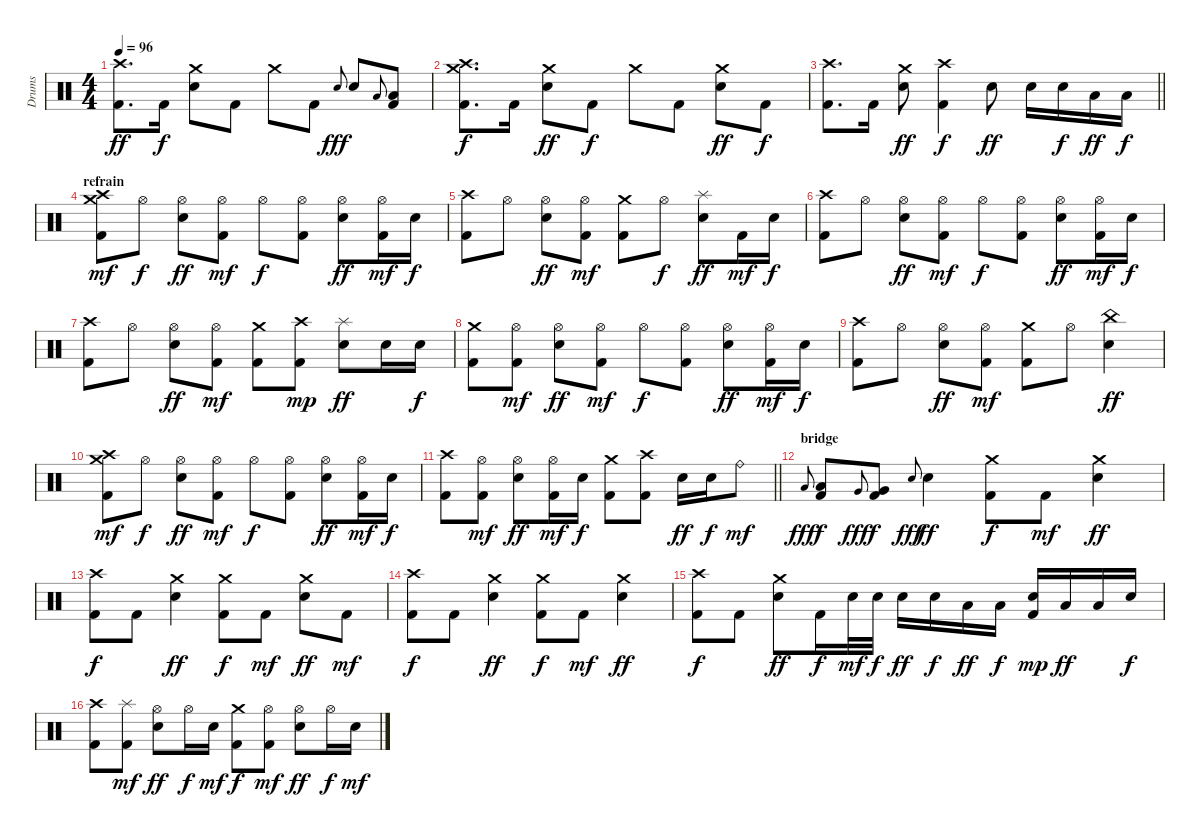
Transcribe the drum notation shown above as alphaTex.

\track ("Drums" "Drums") {instrument percussion}
\staff {score}
\articulation defaults
\ts (4 4)
\tempo 96
\clef neutral
\ks c
("Crash high (hit)" "Kick (hit) 2").8{d dy ff} "Kick (hit) 2".16{dy f} ("Crash medium (hit)" "Electric Snare (hit)").8 "Kick (hit) 2".8 "Crash medium (hit)".8 "Kick (hit) 2".8 "Electric Snare (hit)".8{gr onbeat dy fff} "Electric Snare (hit)".8 "Low Tom (hit)".8{gr onbeat} ("Low Tom (hit)" "Kick (hit) 2").8 |
("Crash medium (hit)" "Crash high (hit)" "Kick (hit) 2").8{d dy f} "Kick (hit) 2".16 ("Crash medium (hit)" "Electric Snare (hit)").8{dy ff} "Kick (hit) 2".8{dy f} "Crash medium (hit)".8 "Kick (hit) 2".8 ("Crash medium (hit)" "Electric Snare (hit)").8{dy ff} "Kick (hit) 2".8{dy f} |
\barLineRight lightlight
("Crash high (hit)" "Kick (hit) 2").8{d} "Kick (hit) 2".16 ("Crash medium (hit)" "Electric Snare (hit)").8{dy ff} ("Crash high (hit)" "Kick (hit) 2").4{dy f} "Electric Snare (hit)".8{dy ff} "Electric Snare (hit)".16 "Electric Snare (hit)".16{dy f} "Low Tom (hit)".16{dy ff} "Low Tom (hit)".16{dy f} |
\section ("" "refrain")
("Crash medium (hit)" "Crash high (hit)" "Kick (hit) 2").8{dy mf} "Hi-Hat (open)".8{dy f} ("Hi-Hat (open)" "Electric Snare (hit)").8{dy ff} ("Hi-Hat (open)" "Kick (hit) 2").8{dy mf} "Hi-Hat (open)".8{dy f} ("Hi-Hat (open)" "Kick (hit) 2").8 ("Hi-Hat (open)" "Electric Snare (hit)").8{dy ff} ("Hi-Hat (open)" "Kick (hit) 2").16{dy mf} "Electric Snare (hit)".16{dy f} |
("Crash high (hit)" "Kick (hit) 2").8 "Hi-Hat (open)".8 ("Hi-Hat (open)" "Electric Snare (hit)").8{dy ff} ("Hi-Hat (open)" "Kick (hit) 2").8{dy mf} ("Crash medium (hit)" "Kick (hit) 2").8 "Hi-Hat (open)".8{dy f} ("Splash (hit)" "Electric Snare (hit)").8{dy ff} "Kick (hit) 2".16{dy mf} "Electric Snare (hit)".16{dy f} |
("Crash high (hit)" "Kick (hit) 2").8 "Hi-Hat (open)".8 ("Hi-Hat (open)" "Electric Snare (hit)").8{dy ff} ("Hi-Hat (open)" "Kick (hit) 2").8{dy mf} "Hi-Hat (open)".8{dy f} ("Hi-Hat (open)" "Kick (hit) 2").8 ("Hi-Hat (open)" "Electric Snare (hit)").8{dy ff} ("Hi-Hat (open)" "Kick (hit) 2").16{dy mf} "Electric Snare (hit)".16{dy f} |
("Crash high (hit)" "Kick (hit) 2").8 "Hi-Hat (open)".8 ("Hi-Hat (open)" "Electric Snare (hit)").8{dy ff} ("Hi-Hat (open)" "Kick (hit) 2").8{dy mf} ("Crash medium (hit)" "Kick (hit) 2").8 ("Crash high (hit)" "Kick (hit) 2").8{dy mp} ("Splash (hit)" "Electric Snare (hit)").8{dy ff} "Electric Snare (hit)".16 "Electric Snare (hit)".16{dy f} |
("Crash medium (hit)" "Kick (hit) 2").8 ("Hi-Hat (open)" "Kick (hit) 2").8{dy mf} ("Hi-Hat (open)" "Electric Snare (hit)").8{dy ff} ("Hi-Hat (open)" "Kick (hit) 2").8{dy mf} "Hi-Hat (open)".8{dy f} ("Hi-Hat (open)" "Kick (hit) 2").8 ("Hi-Hat (open)" "Electric Snare (hit)").8{dy ff} ("Hi-Hat (open)" "Kick (hit) 2").16{dy mf} "Electric Snare (hit)".16{dy f} |
("Crash high (hit)" "Kick (hit) 2").8 "Hi-Hat (open)".8 ("Hi-Hat (open)" "Electric Snare (hit)").8{dy ff} ("Hi-Hat (open)" "Kick (hit) 2").8{dy mf} ("Crash medium (hit)" "Kick (hit) 2").8 "Hi-Hat (open)".8 ("China (hit)" "Electric Snare (hit)").4{dy ff} |
("Crash medium (hit)" "Crash high (hit)" "Kick (hit) 2").8{dy mf} "Hi-Hat (open)".8{dy f} ("Hi-Hat (open)" "Electric Snare (hit)").8{dy ff} ("Hi-Hat (open)" "Kick (hit) 2").8{dy mf} "Hi-Hat (open)".8{dy f} ("Hi-Hat (open)" "Kick (hit) 2").8 ("Hi-Hat (open)" "Electric Snare (hit)").8{dy ff} ("Hi-Hat (open)" "Kick (hit) 2").16{dy mf} "Electric Snare (hit)".16{dy f} |
\barLineRight lightlight
("Crash high (hit)" "Kick (hit) 2").8 ("Hi-Hat (open)" "Kick (hit) 2").8{dy mf} ("Hi-Hat (open)" "Electric Snare (hit)").8{dy ff} ("Hi-Hat (open)" "Kick (hit) 2").16{dy mf} "Electric Snare (hit)".16{dy f} ("Crash medium (hit)" "Kick (hit) 2").8 ("Crash high (hit)" "Kick (hit) 2").8 "Electric Snare (hit)".16{dy ff} "Electric Snare (hit)".16{dy f} "Ride (bell)".8{dy mf} |
\section ("" "bridge")
"Low Tom (hit)".8{gr onbeat dy fff} ("Low Tom (hit)" "Kick (hit) 2").8{dy f} "Very Low Tom (hit)".8{gr onbeat dy fff} ("Very Low Tom (hit)" "Kick (hit) 2").8{dy f} "Electric Snare (hit)".8{gr onbeat dy fff} "Electric Snare (hit)".4{dy ff} ("Crash medium (hit)" "Kick (hit) 2").8{dy f} "Kick (hit) 2".8{dy mf} ("Crash medium (hit)" "Electric Snare (hit)").4{dy ff} |
("Crash high (hit)" "Kick (hit) 2").8{dy f} "Kick (hit) 2".8 ("Crash medium (hit)" "Electric Snare (hit)").4{dy ff} ("Crash medium (hit)" "Kick (hit) 2").8{dy f} "Kick (hit) 2".8{dy mf} ("Crash medium (hit)" "Electric Snare (hit)").8{dy ff} "Kick (hit) 2".8{dy mf} |
("Crash high (hit)" "Kick (hit) 2").8{dy f} "Kick (hit) 2".8 ("Crash medium (hit)" "Electric Snare (hit)").4{dy ff} ("Crash medium (hit)" "Kick (hit) 2").8{dy f} "Kick (hit) 2".8{dy mf} ("Crash medium (hit)" "Electric Snare (hit)").4{dy ff} |
("Crash high (hit)" "Kick (hit) 2").8{dy f} "Kick (hit) 2".8 ("Crash medium (hit)" "Electric Snare (hit)").8{dy ff} "Kick (hit) 2".16{dy f} "Electric Snare (hit)".32{dy mf} "Electric Snare (hit)".32{dy f} "Electric Snare (hit)".16{dy ff} "Electric Snare (hit)".16{dy f} "Low Tom (hit)".16{dy ff} "Low Tom (hit)".16{dy f} ("Electric Snare (hit)" "Kick (hit) 2").16{dy mp} "Low Tom (hit)".16{dy ff} "Low Tom (hit)".16 "Electric Snare (hit)".16{dy f} |
("Crash high (hit)" "Kick (hit) 2").8 ("Splash (hit)" "Kick (hit) 2").8{dy mf} ("Hi-Hat (open)" "Electric Snare (hit)").8{dy ff} "Hi-Hat (open)".16{dy f} "Electric Snare (hit)".16{dy mf} ("Crash medium (hit)" "Kick (hit) 2").8{dy f} ("Hi-Hat (open)" "Kick (hit) 2").8{dy mf} ("Hi-Hat (open)" "Electric Snare (hit)").8{dy ff} "Hi-Hat (open)".16{dy f} "Electric Snare (hit)".16{dy mf}
